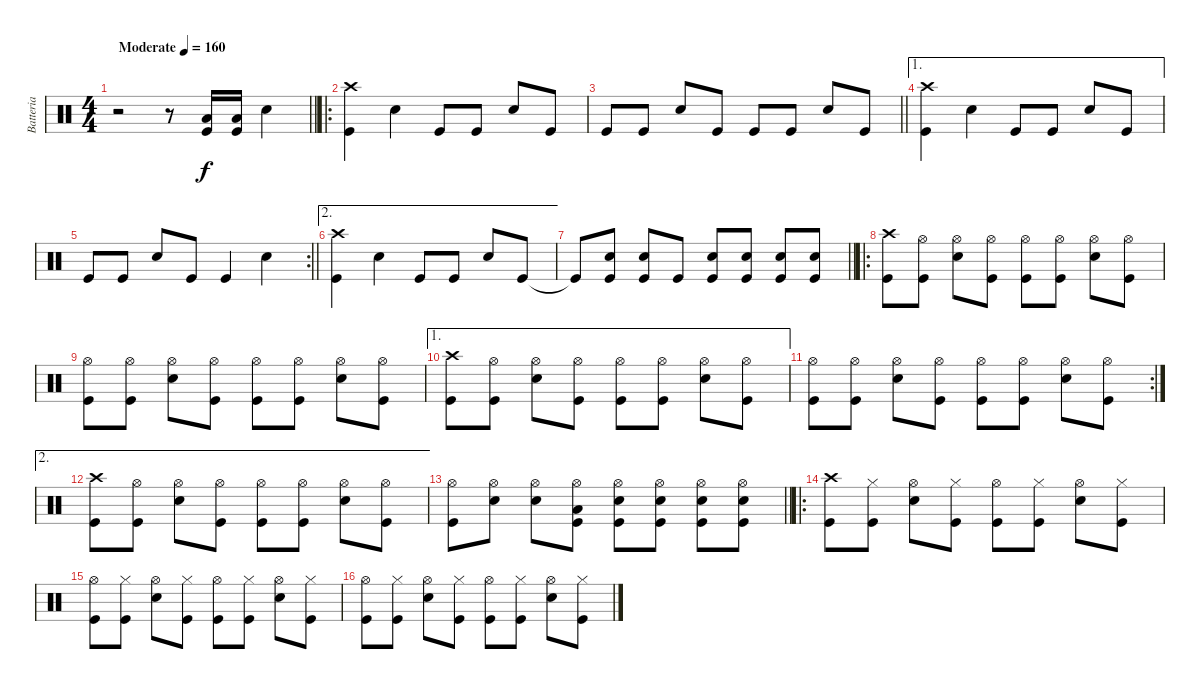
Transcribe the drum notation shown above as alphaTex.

\track ("Batteria" "Batteria") {instrument percussion}
\staff {score}
\articulation defaults
\ts (4 4)
\tempo (160 "Moderate")
\clef neutral
\barLineRight lightlight
\ks c
r.2{dy f} r.8 ("Kick (hit)" "Low Floor Tom (hit)").16 ("Kick (hit)" "Low Floor Tom (hit)").16 "Snare (hit) 2".4 |
\ro
("Kick (hit)" "Crash high (hit)").4 "Snare (hit) 2".4 "Kick (hit)".8 "Kick (hit)".8 "Snare (hit) 2".8 "Kick (hit)".8 |
\barLineRight lightlight "Kick (hit)".8 "Kick (hit)".8 "Snare (hit) 2".8 "Kick (hit)".8 "Kick (hit)".8 "Kick (hit)".8 "Snare (hit) 2".8 "Kick (hit)".8
|
\ae 1
("Kick (hit)" "Crash high (hit)").4 "Snare (hit) 2".4 "Kick (hit)".8 "Kick (hit)".8 "Snare (hit) 2".8 "Kick (hit)".8 |
\rc 2
\barLineRight lightlight "Kick (hit)".8 "Kick (hit)".8 "Snare (hit) 2".8 "Kick (hit)".8 "Kick (hit)".4 "Snare (hit) 2".4
|
\ae 2
("Kick (hit)" "Crash high (hit)").4 "Snare (hit) 2".4 "Kick (hit)".8 "Kick (hit)".8 "Snare (hit) 2".8 "Kick (hit)".8 |
\barLineRight lightlight "Kick (hit)"{t}.8
("Snare (hit) 2" "Kick (hit)").8 ("Snare (hit) 2" "Kick (hit)").8 "Kick (hit)".8 ("Snare (hit) 2" "Kick (hit)").8 ("Snare (hit) 2" "Kick (hit)").8 ("Snare (hit) 2" "Kick (hit)").8 ("Snare (hit) 2" "Kick (hit)").8 |
\ro
("Kick (hit)" "Crash high (hit)").8 ("Kick (hit)" "Hi-Hat (open)").8 ("Snare (hit) 2" "Hi-Hat (open)").8 ("Kick (hit)" "Hi-Hat (open)").8 ("Kick (hit)" "Hi-Hat (open)").8 ("Kick (hit)" "Hi-Hat (open)").8 ("Snare (hit) 2" "Hi-Hat (open)").8 ("Kick (hit)" "Hi-Hat (open)").8 |
("Kick (hit)" "Hi-Hat (open)").8 ("Kick (hit)" "Hi-Hat (open)").8 ("Snare (hit) 2" "Hi-Hat (open)").8 ("Kick (hit)" "Hi-Hat (open)").8 ("Kick (hit)" "Hi-Hat (open)").8 ("Kick (hit)" "Hi-Hat (open)").8 ("Snare (hit) 2" "Hi-Hat (open)").8 ("Kick (hit)" "Hi-Hat (open)").8 |
\ae 1
("Kick (hit)" "Crash high (hit)").8 ("Kick (hit)" "Hi-Hat (open)").8 ("Snare (hit) 2" "Hi-Hat (open)").8 ("Kick (hit)" "Hi-Hat (open)").8 ("Kick (hit)" "Hi-Hat (open)").8 ("Kick (hit)" "Hi-Hat (open)").8 ("Snare (hit) 2" "Hi-Hat (open)").8 ("Kick (hit)" "Hi-Hat (open)").8 |
\rc 2
("Kick (hit)" "Hi-Hat (open)").8 ("Kick (hit)" "Hi-Hat (open)").8 ("Snare (hit) 2" "Hi-Hat (open)").8 ("Kick (hit)" "Hi-Hat (open)").8 ("Kick (hit)" "Hi-Hat (open)").8 ("Kick (hit)" "Hi-Hat (open)").8 ("Snare (hit) 2" "Hi-Hat (open)").8 ("Kick (hit)" "Hi-Hat (open)").8 |
\ae 2
("Kick (hit)" "Crash high (hit)").8 ("Kick (hit)" "Hi-Hat (open)").8 ("Snare (hit) 2" "Hi-Hat (open)").8 ("Kick (hit)" "Hi-Hat (open)").8 ("Kick (hit)" "Hi-Hat (open)").8 ("Kick (hit)" "Hi-Hat (open)").8 ("Snare (hit) 2" "Hi-Hat (open)").8 ("Kick (hit)" "Hi-Hat (open)").8 |
\barLineRight lightlight
("Kick (hit)" "Hi-Hat (open)").8 ("Snare (hit) 2" "Hi-Hat (open)").8 ("Snare (hit) 2" "Hi-Hat (open)").8 ("Kick (hit)" "Low Floor Tom (hit)" "Hi-Hat (open)").8 ("Snare (hit) 2" "Hi-Hat (open)" "Kick (hit)").8 ("Snare (hit) 2" "Hi-Hat (open)" "Kick (hit)").8 ("Snare (hit) 2" "Hi-Hat (open)" "Kick (hit)").8 ("Snare (hit) 2" "Hi-Hat (open)" "Kick (hit)").8 |
\ro
("Kick (hit)" "Crash high (hit)").8 ("Kick (hit)" "Hi-Hat (closed)").8 ("Snare (hit) 2" "Hi-Hat (open)").8 ("Kick (hit)" "Hi-Hat (closed)").8 ("Kick (hit)" "Hi-Hat (open)").8 ("Kick (hit)" "Hi-Hat (closed)").8 ("Snare (hit) 2" "Hi-Hat (open)").8 ("Kick (hit)" "Hi-Hat (closed)").8 |
("Kick (hit)" "Hi-Hat (open)").8 ("Kick (hit)" "Hi-Hat (closed)").8 ("Snare (hit) 2" "Hi-Hat (open)").8 ("Kick (hit)" "Hi-Hat (closed)").8 ("Kick (hit)" "Hi-Hat (open)").8 ("Kick (hit)" "Hi-Hat (closed)").8 ("Snare (hit) 2" "Hi-Hat (open)").8 ("Kick (hit)" "Hi-Hat (closed)").8 |
("Kick (hit)" "Hi-Hat (open)").8 ("Kick (hit)" "Hi-Hat (closed)").8 ("Snare (hit) 2" "Hi-Hat (open)").8 ("Kick (hit)" "Hi-Hat (closed)").8 ("Kick (hit)" "Hi-Hat (open)").8 ("Kick (hit)" "Hi-Hat (closed)").8 ("Snare (hit) 2" "Hi-Hat (open)").8 ("Kick (hit)" "Hi-Hat (closed)").8
